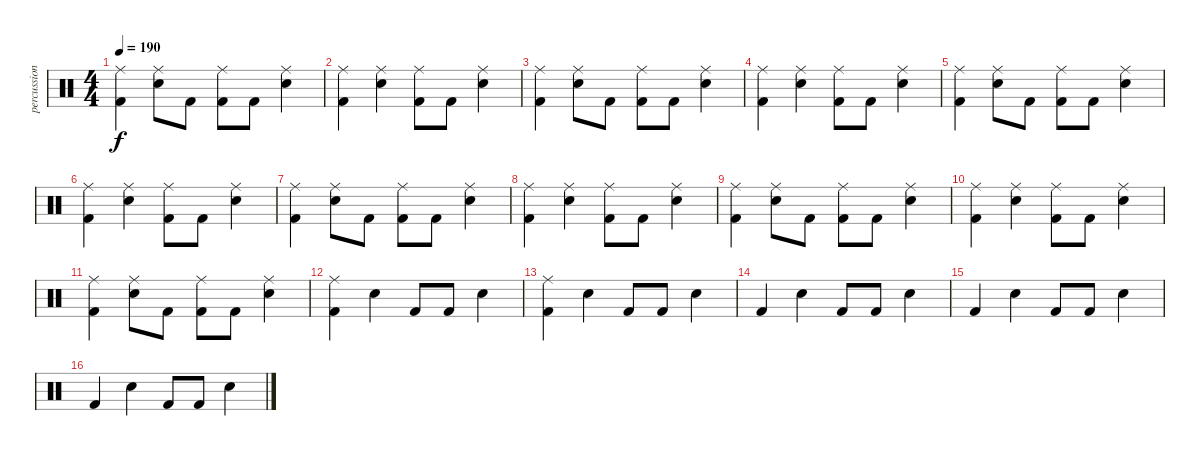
\track ("percussion" "percussion") {instrument percussion}
\staff {score}
\articulation defaults
\ts (4 4)
\tempo 190
\clef neutral
\ks c
("Ride (middle)" "Kick (hit) 2").4{dy f} ("Ride (middle)" "Snare (hit) 2").8 "Kick (hit) 2".8 ("Ride (middle)" "Kick (hit) 2").8 "Kick (hit) 2".8 ("Ride (middle)" "Snare (hit) 2").4 |
("Ride (middle)" "Kick (hit) 2").4 ("Ride (middle)" "Snare (hit) 2").4 ("Ride (middle)" "Kick (hit) 2").8 "Kick (hit) 2".8 ("Ride (middle)" "Snare (hit) 2").4 |
("Ride (middle)" "Kick (hit) 2").4 ("Ride (middle)" "Snare (hit) 2").8 "Kick (hit) 2".8 ("Ride (middle)" "Kick (hit) 2").8 "Kick (hit) 2".8 ("Ride (middle)" "Snare (hit) 2").4 |
("Ride (middle)" "Kick (hit) 2").4 ("Ride (middle)" "Snare (hit) 2").4 ("Ride (middle)" "Kick (hit) 2").8 "Kick (hit) 2".8 ("Ride (middle)" "Snare (hit) 2").4 |
("Ride (middle)" "Kick (hit) 2").4 ("Ride (middle)" "Snare (hit) 2").8 "Kick (hit) 2".8 ("Ride (middle)" "Kick (hit) 2").8 "Kick (hit) 2".8 ("Ride (middle)" "Snare (hit) 2").4 |
("Ride (middle)" "Kick (hit) 2").4 ("Ride (middle)" "Snare (hit) 2").4 ("Ride (middle)" "Kick (hit) 2").8 "Kick (hit) 2".8 ("Ride (middle)" "Snare (hit) 2").4 |
("Ride (middle)" "Kick (hit) 2").4 ("Ride (middle)" "Snare (hit) 2").8 "Kick (hit) 2".8 ("Ride (middle)" "Kick (hit) 2").8 "Kick (hit) 2".8 ("Ride (middle)" "Snare (hit) 2").4 |
("Ride (middle)" "Kick (hit) 2").4 ("Ride (middle)" "Snare (hit) 2").4 ("Ride (middle)" "Kick (hit) 2").8 "Kick (hit) 2".8 ("Ride (middle)" "Snare (hit) 2").4 |
("Ride (middle)" "Kick (hit) 2").4 ("Ride (middle)" "Snare (hit) 2").8 "Kick (hit) 2".8 ("Ride (middle)" "Kick (hit) 2").8 "Kick (hit) 2".8 ("Ride (middle)" "Snare (hit) 2").4 |
("Ride (middle)" "Kick (hit) 2").4 ("Ride (middle)" "Snare (hit) 2").4 ("Ride (middle)" "Kick (hit) 2").8 "Kick (hit) 2".8 ("Ride (middle)" "Snare (hit) 2").4 |
("Ride (middle)" "Kick (hit) 2").4 ("Ride (middle)" "Snare (hit) 2").8 "Kick (hit) 2".8 ("Ride (middle)" "Kick (hit) 2").8 "Kick (hit) 2".8 ("Ride (middle)" "Snare (hit) 2").4 |
("Ride (middle)" "Kick (hit) 2").4 "Snare (hit) 2".4 "Kick (hit) 2".8 "Kick (hit) 2".8 "Snare (hit) 2".4 |
("Ride (middle)" "Kick (hit) 2").4 "Snare (hit) 2".4 "Kick (hit) 2".8 "Kick (hit) 2".8 "Snare (hit) 2".4 |
"Kick (hit) 2".4 "Snare (hit) 2".4 "Kick (hit) 2".8 "Kick (hit) 2".8 "Snare (hit) 2".4 |
"Kick (hit) 2".4 "Snare (hit) 2".4 "Kick (hit) 2".8 "Kick (hit) 2".8 "Snare (hit) 2".4 |
"Kick (hit) 2".4 "Snare (hit) 2".4 "Kick (hit) 2".8 "Kick (hit) 2".8 "Snare (hit) 2".4
